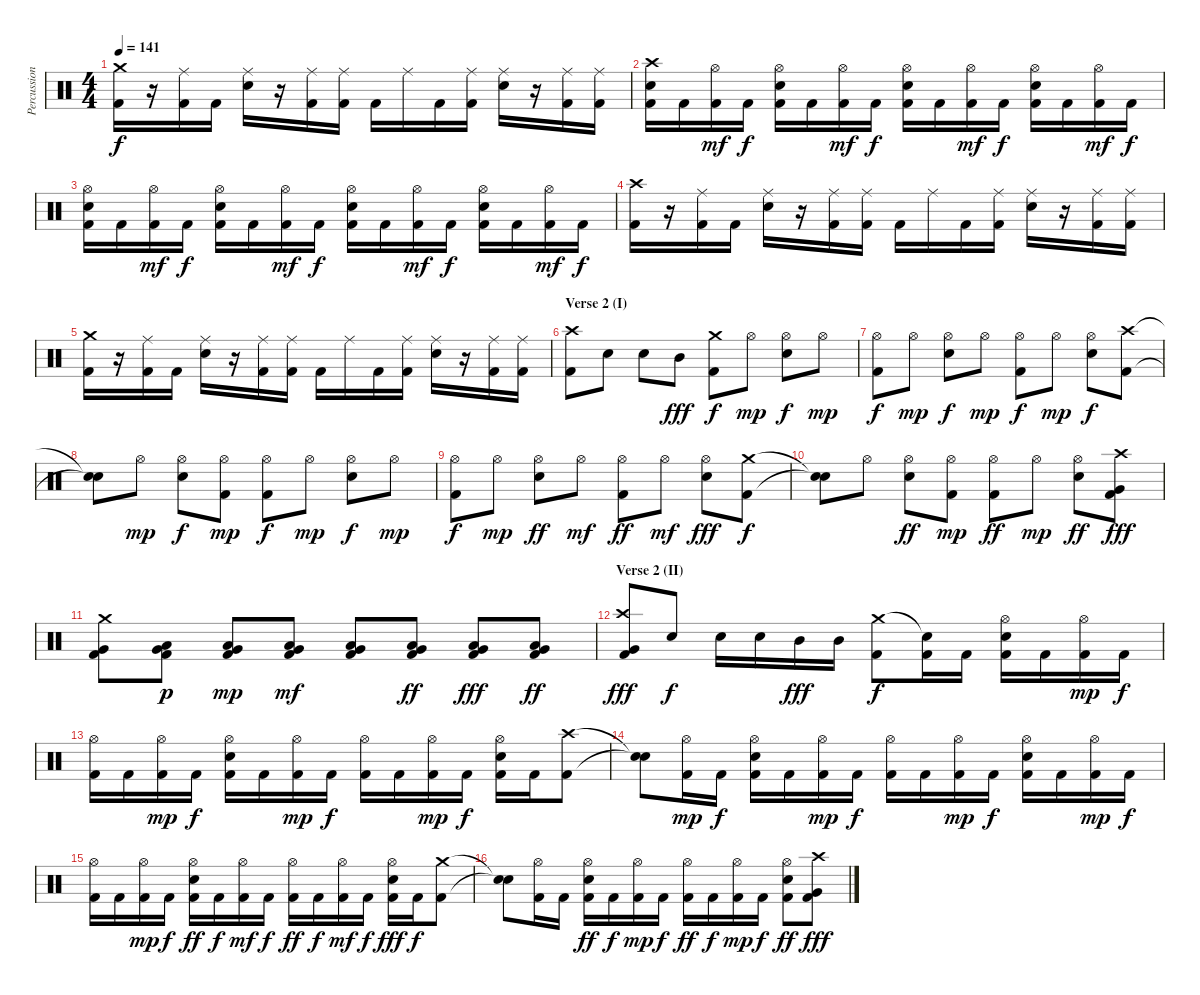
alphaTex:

\track ("Percussion" "Percussion") {instrument percussion}
\staff {score}
\articulation defaults
\ts (4 4)
\tempo 141
\clef neutral
\ks c
("Crash medium (hit)" "Kick (hit) 2").16{dy f} r.16 ("Ride (middle)" "Kick (hit) 2").16 "Kick (hit) 2".16 ("Ride (middle)" "Snare (hit) 2").16 r.16 ("Ride (middle)" "Kick (hit) 2").16 ("Ride (middle)" "Kick (hit) 2").16 "Kick (hit) 2".16 "Ride (middle)".16 "Kick (hit) 2".16 ("Ride (middle)" "Kick (hit) 2").16 ("Ride (middle)" "Snare (hit) 2").16 r.16 ("Ride (middle)" "Kick (hit) 2").16 ("Ride (middle)" "Kick (hit) 2").16 |
("Crash high (hit)" "Snare (hit) 2" "Kick (hit) 2").16 "Kick (hit) 2".16 ("Hi-Hat (open)" "Kick (hit) 2").16{dy mf} "Kick (hit) 2".16{dy f} ("Hi-Hat (open)" "Snare (hit) 2" "Kick (hit) 2").16 "Kick (hit) 2".16 ("Hi-Hat (open)" "Kick (hit) 2").16{dy mf} "Kick (hit) 2".16{dy f} ("Hi-Hat (open)" "Snare (hit) 2" "Kick (hit) 2").16 "Kick (hit) 2".16 ("Hi-Hat (open)" "Kick (hit) 2").16{dy mf} "Kick (hit) 2".16{dy f} ("Hi-Hat (open)" "Snare (hit) 2" "Kick (hit) 2").16 "Kick (hit) 2".16 ("Hi-Hat (open)" "Kick (hit) 2").16{dy mf} "Kick (hit) 2".16{dy f} |
("Hi-Hat (open)" "Snare (hit) 2" "Kick (hit) 2").16 "Kick (hit) 2".16 ("Hi-Hat (open)" "Kick (hit) 2").16{dy mf} "Kick (hit) 2".16{dy f} ("Hi-Hat (open)" "Snare (hit) 2" "Kick (hit) 2").16 "Kick (hit) 2".16 ("Hi-Hat (open)" "Kick (hit) 2").16{dy mf} "Kick (hit) 2".16{dy f} ("Hi-Hat (open)" "Snare (hit) 2" "Kick (hit) 2").16 "Kick (hit) 2".16 ("Hi-Hat (open)" "Kick (hit) 2").16{dy mf} "Kick (hit) 2".16{dy f} ("Hi-Hat (open)" "Snare (hit) 2" "Kick (hit) 2").16 "Kick (hit) 2".16 ("Hi-Hat (open)" "Kick (hit) 2").16{dy mf} "Kick (hit) 2".16{dy f} |
("Crash high (hit)" "Kick (hit) 2").16 r.16 ("Ride (middle)" "Kick (hit) 2").16 "Kick (hit) 2".16 ("Ride (middle)" "Snare (hit) 2").16 r.16 ("Ride (middle)" "Kick (hit) 2").16 ("Ride (middle)" "Kick (hit) 2").16 "Kick (hit) 2".16 "Ride (middle)".16 "Kick (hit) 2".16 ("Ride (middle)" "Kick (hit) 2").16 ("Ride (middle)" "Snare (hit) 2").16 r.16 ("Ride (middle)" "Kick (hit) 2").16 ("Ride (middle)" "Kick (hit) 2").16 |
("Crash medium (hit)" "Kick (hit) 2").16 r.16 ("Ride (middle)" "Kick (hit) 2").16 "Kick (hit) 2".16 ("Ride (middle)" "Snare (hit) 2").16 r.16 ("Ride (middle)" "Kick (hit) 2").16 ("Ride (middle)" "Kick (hit) 2").16 "Kick (hit) 2".16 "Ride (middle)".16 "Kick (hit) 2".16 ("Ride (middle)" "Kick (hit) 2").16 ("Ride (middle)" "Snare (hit) 2").16 r.16 ("Ride (middle)" "Kick (hit) 2").16 ("Ride (middle)" "Kick (hit) 2").16 |
\section ("" "Verse 2 (I)")
("Crash high (hit)" "Kick (hit) 2").8 "Snare (hit) 2".8 "Snare (hit) 2".8 "Mid Tom (hit)".8{dy fff} ("Crash medium (hit)" "Kick (hit) 2").8{dy f} "Hi-Hat (open)".8{dy mp} ("Hi-Hat (open)" "Snare (hit) 2").8{dy f} "Hi-Hat (open)".8{dy mp} |
("Hi-Hat (open)" "Kick (hit) 2").8{dy f} "Hi-Hat (open)".8{dy mp} ("Hi-Hat (open)" "Snare (hit) 2").8{dy f} "Hi-Hat (open)".8{dy mp} ("Hi-Hat (open)" "Kick (hit) 2").8{dy f} "Hi-Hat (open)".8{dy mp} ("Hi-Hat (open)" "Snare (hit) 2").8{dy f} ("Crash high (hit)" "Kick (hit) 2").8 |
("Snare (hit)"{t} "Snare (hit)"{t}).8 "Hi-Hat (open)".8{dy mp} ("Hi-Hat (open)" "Snare (hit) 2").8{dy f} ("Hi-Hat (open)" "Kick (hit) 2").8{dy mp} ("Hi-Hat (open)" "Kick (hit) 2").8{dy f} "Hi-Hat (open)".8{dy mp} ("Hi-Hat (open)" "Snare (hit) 2").8{dy f} "Hi-Hat (open)".8{dy mp} |
("Hi-Hat (open)" "Kick (hit) 2").8{dy f} "Hi-Hat (open)".8{dy mp} ("Hi-Hat (open)" "Snare (hit) 2").8{dy ff} "Hi-Hat (open)".8{dy mf} ("Hi-Hat (open)" "Kick (hit) 2").8{dy ff} "Hi-Hat (open)".8{dy mf} ("Hi-Hat (open)" "Snare (hit) 2").8{dy fff} ("Crash medium (hit)" "Kick (hit) 2").8{dy f} |
("Snare (hit)"{t} "Snare (hit)"{t}).8 "Hi-Hat (open)".8 ("Hi-Hat (open)" "Snare (hit) 2").8{dy ff} ("Hi-Hat (open)" "Kick (hit) 2").8{dy mp} ("Hi-Hat (open)" "Kick (hit) 2").8{dy ff} "Hi-Hat (open)".8{dy mp} ("Hi-Hat (open)" "Snare (hit) 2").8{dy ff} ("Crash high (hit)" "Very Low Tom (hit)" "Kick (hit) 2").8{dy fff} |
("Crash medium (hit)" "Very Low Tom (hit)" "Kick (hit) 2").8 ("Low Tom (hit)" "Very Low Tom (hit)" "Kick (hit) 2").8{dy p} ("Low Tom (hit)" "Very Low Tom (hit)" "Kick (hit) 2").8{dy mp} ("Low Tom (hit)" "Very Low Tom (hit)" "Kick (hit) 2").8{dy mf} ("Low Tom (hit)" "Very Low Tom (hit)" "Kick (hit) 2").8 ("Low Tom (hit)" "Very Low Tom (hit)" "Kick (hit) 2").8{dy ff} ("Low Tom (hit)" "Very Low Tom (hit)" "Kick (hit) 2").8{dy fff} ("Low Tom (hit)" "Very Low Tom (hit)" "Kick (hit) 2").8{dy ff} |
\section ("" "Verse 2 (II)")
("Crash high (hit)" "Very Low Tom (hit)" "Kick (hit) 2").8{dy fff} "Snare (hit) 2".8{dy f} "Snare (hit) 2".16 "Snare (hit) 2".16 "Mid Tom (hit)".16{dy fff} "Mid Tom (hit)".16 ("Crash medium (hit)" "Kick (hit) 2").8{dy f} ("Snare (hit)"{t} "Kick (hit) 2").16 "Kick (hit) 2".16 ("Hi-Hat (open)" "Snare (hit) 2" "Kick (hit) 2").16 "Kick (hit) 2".16 ("Hi-Hat (open)" "Kick (hit) 2").16{dy mp} "Kick (hit) 2".16{dy f} |
("Hi-Hat (open)" "Kick (hit) 2").16 "Kick (hit) 2".16 ("Hi-Hat (open)" "Kick (hit) 2").16{dy mp} "Kick (hit) 2".16{dy f} ("Hi-Hat (open)" "Snare (hit) 2" "Kick (hit) 2").16 "Kick (hit) 2".16 ("Hi-Hat (open)" "Kick (hit) 2").16{dy mp} "Kick (hit) 2".16{dy f} ("Hi-Hat (open)" "Kick (hit) 2").16 "Kick (hit) 2".16 ("Hi-Hat (open)" "Kick (hit) 2").16{dy mp} "Kick (hit) 2".16{dy f} ("Hi-Hat (open)" "Snare (hit) 2" "Kick (hit) 2").16 "Kick (hit) 2".16 ("Crash high (hit)" "Kick (hit) 2").8 |
("Snare (hit)"{t} "Snare (hit)"{t}).8 ("Hi-Hat (open)" "Kick (hit) 2").16{dy mp} "Kick (hit) 2".16{dy f} ("Hi-Hat (open)" "Snare (hit) 2" "Kick (hit) 2").16 "Kick (hit) 2".16 ("Hi-Hat (open)" "Kick (hit) 2").16{dy mp} "Kick (hit) 2".16{dy f} ("Hi-Hat (open)" "Kick (hit) 2").16 "Kick (hit) 2".16 ("Hi-Hat (open)" "Kick (hit) 2").16{dy mp} "Kick (hit) 2".16{dy f} ("Hi-Hat (open)" "Snare (hit) 2" "Kick (hit) 2").16 "Kick (hit) 2".16 ("Hi-Hat (open)" "Kick (hit) 2").16{dy mp} "Kick (hit) 2".16{dy f} |
("Hi-Hat (open)" "Kick (hit) 2").16 "Kick (hit) 2".16 ("Hi-Hat (open)" "Kick (hit) 2").16{dy mp} "Kick (hit) 2".16{dy f} ("Hi-Hat (open)" "Snare (hit) 2" "Kick (hit) 2").16{dy ff} "Kick (hit) 2".16{dy f} ("Hi-Hat (open)" "Kick (hit) 2").16{dy mf} "Kick (hit) 2".16{dy f} ("Hi-Hat (open)" "Kick (hit) 2").16{dy ff} "Kick (hit) 2".16{dy f} ("Hi-Hat (open)" "Kick (hit) 2").16{dy mf} "Kick (hit) 2".16{dy f} ("Hi-Hat (open)" "Snare (hit) 2" "Kick (hit) 2").16{dy fff} "Kick (hit) 2".16{dy f} ("Crash medium (hit)" "Kick (hit) 2").8 |
("Snare (hit)"{t} "Snare (hit)"{t}).8 ("Hi-Hat (open)" "Kick (hit) 2").16 "Kick (hit) 2".16 ("Hi-Hat (open)" "Snare (hit) 2" "Kick (hit) 2").16{dy ff} "Kick (hit) 2".16{dy f} ("Hi-Hat (open)" "Kick (hit) 2").16{dy mp} "Kick (hit) 2".16{dy f} ("Hi-Hat (open)" "Kick (hit) 2").16{dy ff} "Kick (hit) 2".16{dy f} ("Hi-Hat (open)" "Kick (hit) 2").16{dy mp} "Kick (hit) 2".16{dy f} ("Hi-Hat (open)" "Snare (hit) 2" "Kick (hit) 2").8{dy ff} ("Crash high (hit)" "Very Low Tom (hit)" "Kick (hit) 2").8{dy fff}
